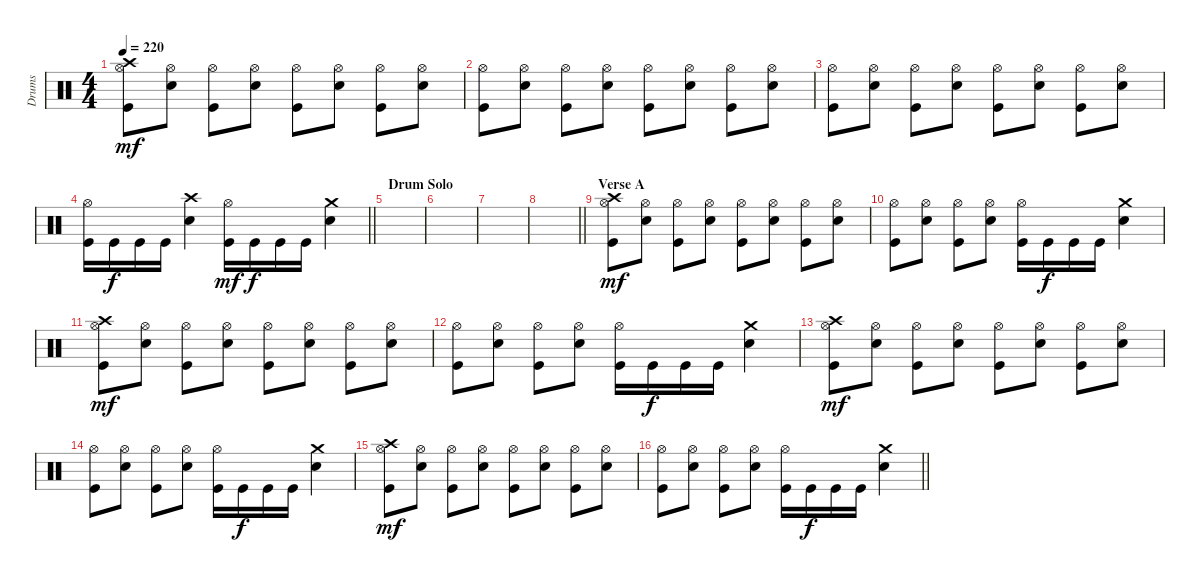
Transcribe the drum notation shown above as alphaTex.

\track ("Drums" "Drums") {instrument percussion}
\staff {score}
\articulation defaults
\ts (4 4)
\tempo 220
\clef neutral
\ks c
("Crash high (hit)" "Hi-Hat (open)" "Kick (hit)").8{dy mf} ("Hi-Hat (open)" "Electric Snare (hit)").8 ("Hi-Hat (open)" "Kick (hit)").8 ("Hi-Hat (open)" "Electric Snare (hit)").8 ("Hi-Hat (open)" "Kick (hit)").8 ("Hi-Hat (open)" "Electric Snare (hit)").8 ("Hi-Hat (open)" "Kick (hit)").8 ("Hi-Hat (open)" "Electric Snare (hit)").8 |
("Hi-Hat (open)" "Kick (hit)").8 ("Hi-Hat (open)" "Electric Snare (hit)").8 ("Hi-Hat (open)" "Kick (hit)").8 ("Hi-Hat (open)" "Electric Snare (hit)").8 ("Hi-Hat (open)" "Kick (hit)").8 ("Hi-Hat (open)" "Electric Snare (hit)").8 ("Hi-Hat (open)" "Kick (hit)").8 ("Hi-Hat (open)" "Electric Snare (hit)").8 |
("Hi-Hat (open)" "Kick (hit)").8 ("Hi-Hat (open)" "Electric Snare (hit)").8 ("Hi-Hat (open)" "Kick (hit)").8 ("Hi-Hat (open)" "Electric Snare (hit)").8 ("Hi-Hat (open)" "Kick (hit)").8 ("Hi-Hat (open)" "Electric Snare (hit)").8 ("Hi-Hat (open)" "Kick (hit)").8 ("Hi-Hat (open)" "Electric Snare (hit)").8 |
\barLineRight lightlight
("Hi-Hat (open)" "Kick (hit)").16 "Kick (hit)".16{dy f} "Kick (hit)".16 "Kick (hit)".16 ("Crash high (hit)" "Electric Snare (hit)").4 ("Hi-Hat (open)" "Kick (hit)").16{dy mf} "Kick (hit)".16{dy f} "Kick (hit)".16 "Kick (hit)".16 ("Crash medium (hit)" "Electric Snare (hit)").4 |
\section ("" "Drum Solo")
|
|
|
\barLineRight lightlight
|
\section ("" "Verse A")
("Crash high (hit)" "Hi-Hat (open)" "Kick (hit)").8{dy mf} ("Hi-Hat (open)" "Electric Snare (hit)").8 ("Hi-Hat (open)" "Kick (hit)").8 ("Hi-Hat (open)" "Electric Snare (hit)").8 ("Hi-Hat (open)" "Kick (hit)").8 ("Hi-Hat (open)" "Electric Snare (hit)").8 ("Hi-Hat (open)" "Kick (hit)").8 ("Hi-Hat (open)" "Electric Snare (hit)").8 |
("Hi-Hat (open)" "Kick (hit)").8 ("Hi-Hat (open)" "Electric Snare (hit)").8 ("Hi-Hat (open)" "Kick (hit)").8 ("Hi-Hat (open)" "Electric Snare (hit)").8 ("Hi-Hat (open)" "Kick (hit)").16 "Kick (hit)".16{dy f} "Kick (hit)".16 "Kick (hit)".16 ("Crash medium (hit)" "Electric Snare (hit)").4 |
("Crash high (hit)" "Hi-Hat (open)" "Kick (hit)").8{dy mf} ("Hi-Hat (open)" "Electric Snare (hit)").8 ("Hi-Hat (open)" "Kick (hit)").8 ("Hi-Hat (open)" "Electric Snare (hit)").8 ("Hi-Hat (open)" "Kick (hit)").8 ("Hi-Hat (open)" "Electric Snare (hit)").8 ("Hi-Hat (open)" "Kick (hit)").8 ("Hi-Hat (open)" "Electric Snare (hit)").8 |
("Hi-Hat (open)" "Kick (hit)").8 ("Hi-Hat (open)" "Electric Snare (hit)").8 ("Hi-Hat (open)" "Kick (hit)").8 ("Hi-Hat (open)" "Electric Snare (hit)").8 ("Hi-Hat (open)" "Kick (hit)").16 "Kick (hit)".16{dy f} "Kick (hit)".16 "Kick (hit)".16 ("Crash medium (hit)" "Electric Snare (hit)").4 |
("Crash high (hit)" "Hi-Hat (open)" "Kick (hit)").8{dy mf} ("Hi-Hat (open)" "Electric Snare (hit)").8 ("Hi-Hat (open)" "Kick (hit)").8 ("Hi-Hat (open)" "Electric Snare (hit)").8 ("Hi-Hat (open)" "Kick (hit)").8 ("Hi-Hat (open)" "Electric Snare (hit)").8 ("Hi-Hat (open)" "Kick (hit)").8 ("Hi-Hat (open)" "Electric Snare (hit)").8 |
("Hi-Hat (open)" "Kick (hit)").8 ("Hi-Hat (open)" "Electric Snare (hit)").8 ("Hi-Hat (open)" "Kick (hit)").8 ("Hi-Hat (open)" "Electric Snare (hit)").8 ("Hi-Hat (open)" "Kick (hit)").16 "Kick (hit)".16{dy f} "Kick (hit)".16 "Kick (hit)".16 ("Crash medium (hit)" "Electric Snare (hit)").4 |
("Crash high (hit)" "Hi-Hat (open)" "Kick (hit)").8{dy mf} ("Hi-Hat (open)" "Electric Snare (hit)").8 ("Hi-Hat (open)" "Kick (hit)").8 ("Hi-Hat (open)" "Electric Snare (hit)").8 ("Hi-Hat (open)" "Kick (hit)").8 ("Hi-Hat (open)" "Electric Snare (hit)").8 ("Hi-Hat (open)" "Kick (hit)").8 ("Hi-Hat (open)" "Electric Snare (hit)").8 |
\barLineRight lightlight
("Hi-Hat (open)" "Kick (hit)").8 ("Hi-Hat (open)" "Electric Snare (hit)").8 ("Hi-Hat (open)" "Kick (hit)").8 ("Hi-Hat (open)" "Electric Snare (hit)").8 ("Hi-Hat (open)" "Kick (hit)").16 "Kick (hit)".16{dy f} "Kick (hit)".16 "Kick (hit)".16 ("Crash medium (hit)" "Electric Snare (hit)").4
